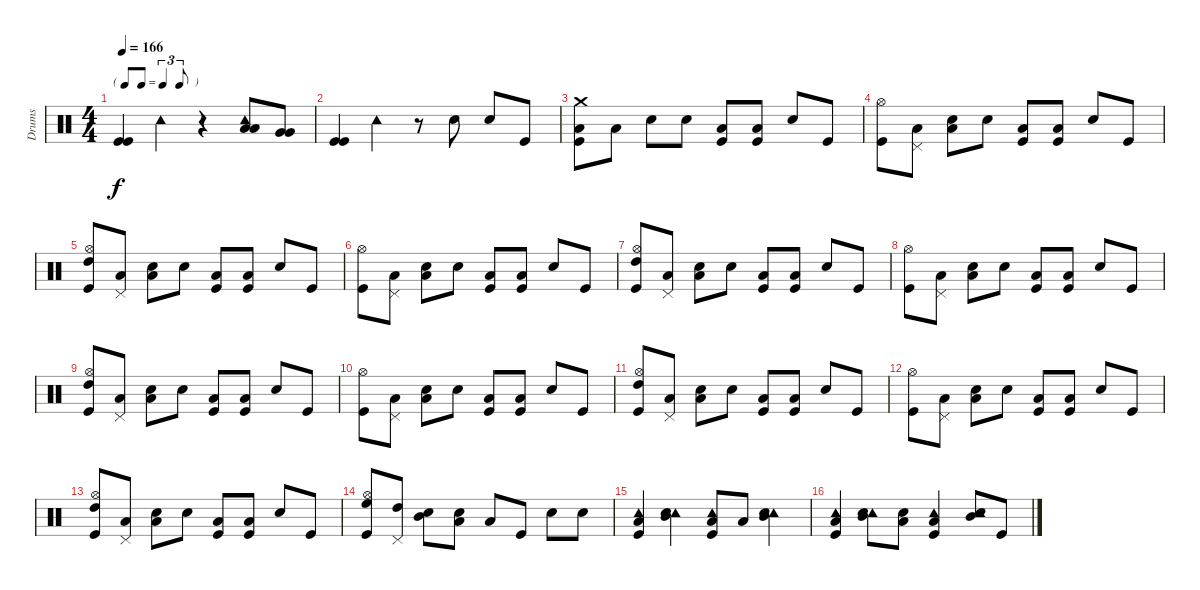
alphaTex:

\track ("Drums" "Drums") {instrument percussion}
\staff {score}
\articulation defaults
\ts (4 4)
\tf triplet8th
\tempo 166
\clef neutral
\ks c
("Kick (hit)" "Kick (hit)").4{dy f} "Tambourine (hit)".4 r.4 ("Tambourine (hit)" "Low Tom (hit)" "Low Tom (hit)").8 ("Very Low Tom (hit)" "Very Low Tom (hit)").8 |
("Kick (hit)" "Kick (hit)").4 "Tambourine (hit)".4 r.8 "Snare (hit) 2".8 "Snare (hit) 2".8 "Kick (hit)".8 |
("Crash medium (hit)" "Low Tom (hit)" "Kick (hit)").8 "Low Floor Tom (hit)".8 "Snare (hit) 2".8 "Snare (hit) 2".8 ("Low Tom (hit)" "Kick (hit)").8 ("Low Floor Tom (hit)" "Kick (hit)").8 "Snare (hit) 2".8 "Kick (hit)".8 |
("Hi-Hat (open)" "Kick (hit)").8 ("Pedal Hi-Hat (hit)" "Low Tom (hit)").8 ("Snare (hit) 2" "Low Floor Tom (hit)").8 "Snare (hit) 2".8 ("Low Tom (hit)" "Kick (hit)").8 ("Low Floor Tom (hit)" "Kick (hit)").8 "Snare (hit) 2".8 "Kick (hit)".8 |
("Hi-Hat (open)" "High Tom (hit)" "Kick (hit)").8 ("Pedal Hi-Hat (hit)" "Low Tom (hit)").8 ("Snare (hit) 2" "Low Floor Tom (hit)").8 "Snare (hit) 2".8 ("Low Tom (hit)" "Kick (hit)").8 ("Low Floor Tom (hit)" "Kick (hit)").8 "Snare (hit) 2".8 "Kick (hit)".8 |
("Hi-Hat (open)" "Kick (hit)").8 ("Pedal Hi-Hat (hit)" "Low Tom (hit)").8 ("Snare (hit) 2" "Low Floor Tom (hit)").8 "Snare (hit) 2".8 ("Low Tom (hit)" "Kick (hit)").8 ("Low Floor Tom (hit)" "Kick (hit)").8 "Snare (hit) 2".8 "Kick (hit)".8 |
("Hi-Hat (open)" "High Tom (hit)" "Kick (hit)").8 ("Pedal Hi-Hat (hit)" "Low Tom (hit)").8 ("Snare (hit) 2" "Low Floor Tom (hit)").8 "Snare (hit) 2".8 ("Low Tom (hit)" "Kick (hit)").8 ("Low Floor Tom (hit)" "Kick (hit)").8 "Snare (hit) 2".8 "Kick (hit)".8 |
("Hi-Hat (open)" "Kick (hit)").8 ("Pedal Hi-Hat (hit)" "Low Tom (hit)").8 ("Snare (hit) 2" "Low Floor Tom (hit)").8 "Snare (hit) 2".8 ("Low Tom (hit)" "Kick (hit)").8 ("Low Floor Tom (hit)" "Kick (hit)").8 "Snare (hit) 2".8 "Kick (hit)".8 |
("Hi-Hat (open)" "High Tom (hit)" "Kick (hit)").8 ("Pedal Hi-Hat (hit)" "Low Tom (hit)").8 ("Snare (hit) 2" "Low Floor Tom (hit)").8 "Snare (hit) 2".8 ("Low Tom (hit)" "Kick (hit)").8 ("Low Floor Tom (hit)" "Kick (hit)").8 "Snare (hit) 2".8 "Kick (hit)".8 |
("Hi-Hat (open)" "Kick (hit)").8 ("Pedal Hi-Hat (hit)" "Low Tom (hit)").8 ("Snare (hit) 2" "Low Floor Tom (hit)").8 "Snare (hit) 2".8 ("Low Tom (hit)" "Kick (hit)").8 ("Low Floor Tom (hit)" "Kick (hit)").8 "Snare (hit) 2".8 "Kick (hit)".8 |
("Hi-Hat (open)" "High Tom (hit)" "Kick (hit)").8 ("Pedal Hi-Hat (hit)" "Low Tom (hit)").8 ("Snare (hit) 2" "Low Floor Tom (hit)").8 "Snare (hit) 2".8 ("Low Tom (hit)" "Kick (hit)").8 ("Low Floor Tom (hit)" "Kick (hit)").8 "Snare (hit) 2".8 "Kick (hit)".8 |
("Hi-Hat (open)" "Kick (hit)").8 ("Pedal Hi-Hat (hit)" "Low Tom (hit)").8 ("Snare (hit) 2" "Low Floor Tom (hit)").8 "Snare (hit) 2".8 ("Low Tom (hit)" "Kick (hit)").8 ("Low Floor Tom (hit)" "Kick (hit)").8 "Snare (hit) 2".8 "Kick (hit)".8 |
("Hi-Hat (open)" "High Tom (hit)" "Kick (hit)").8 ("Pedal Hi-Hat (hit)" "Low Tom (hit)").8 ("Snare (hit) 2" "Low Floor Tom (hit)").8 "Snare (hit) 2".8 ("Low Tom (hit)" "Kick (hit)").8 ("Low Floor Tom (hit)" "Kick (hit)").8 "Snare (hit) 2".8 "Kick (hit)".8 |
("Hi-Hat (open)" "High Floor Tom (hit)" "Kick (hit)").8 ("Pedal Hi-Hat (hit)" "High Tom (hit)").8 ("Snare (hit) 2" "Mid Tom (hit)").8 ("Snare (hit) 2" "Low Tom (hit)").8 "Low Floor Tom (hit)".8 "Kick (hit)".8 "Snare (hit) 2".8 "Snare (hit) 2".8 |
("Tambourine (hit)" "Low Floor Tom (hit)" "Kick (hit)").4 ("Tambourine (hit)" "Snare (hit) 2" "Mid Tom (hit)").4 ("Tambourine (hit)" "Low Tom (hit)" "Kick (hit)").8 "Low Floor Tom (hit)".8 ("Tambourine (hit)" "Snare (hit) 2" "Mid Tom (hit)").4 |
("Tambourine (hit)" "Low Floor Tom (hit)" "Kick (hit)").4 ("Tambourine (hit)" "Snare (hit) 2" "Mid Tom (hit)").8 ("Snare (hit) 2" "Low Tom (hit)").8 ("Tambourine (hit)" "Low Floor Tom (hit)" "Kick (hit)").4 ("Tambourine (hit)" "Snare (hit) 2" "Mid Tom (hit)").8 "Kick (hit)".8
